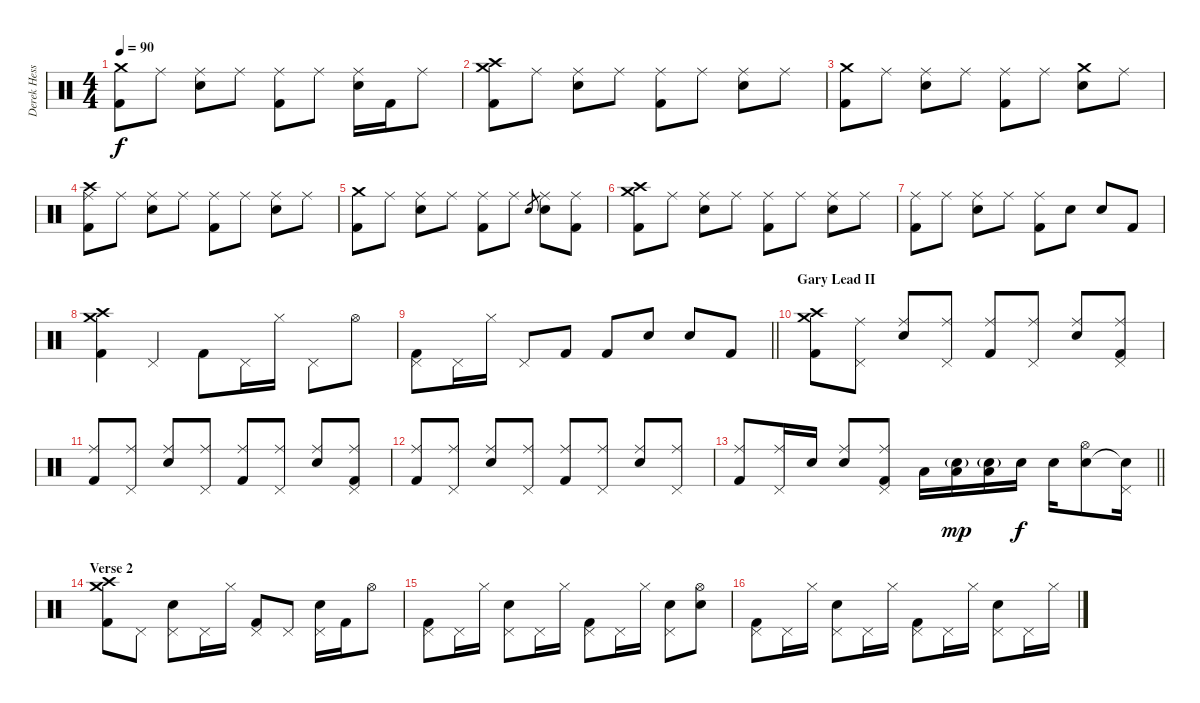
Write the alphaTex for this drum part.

\track ("Derek Hess (Drums and Percussion)" "Derek Hess") {instrument percussion}
\staff {score}
\articulation defaults
\ts (4 4)
\tempo 90
\clef neutral
\ks c
("Crash medium (hit)" "Kick (hit) 2").8{dy f} "Ride (middle)".8 ("Ride (middle)" "Snare (hit) 2").8 "Ride (middle)".8 ("Ride (middle)" "Kick (hit) 2").8 "Ride (middle)".8 ("Ride (middle)" "Snare (hit) 2").16 "Kick (hit) 2".16 "Ride (middle)".8 |
("Crash medium (hit)" "Crash high (hit)" "Kick (hit) 2").8 "Ride (middle)".8 ("Ride (middle)" "Snare (hit) 2").8 "Ride (middle)".8 ("Ride (middle)" "Kick (hit) 2").8 "Ride (middle)".8 ("Ride (middle)" "Snare (hit) 2").8 "Ride (middle)".8 |
("Crash medium (hit)" "Kick (hit) 2").8 "Ride (middle)".8 ("Ride (middle)" "Snare (hit) 2").8 "Ride (middle)".8 ("Ride (middle)" "Kick (hit) 2").8 "Ride (middle)".8 ("Crash medium (hit)" "Snare (hit) 2").8 "Ride (middle)".8 |
("Crash high (hit)" "Ride (middle)" "Kick (hit) 2").8 "Ride (middle)".8 ("Ride (middle)" "Snare (hit) 2").8 "Ride (middle)".8 ("Ride (middle)" "Kick (hit) 2").8 "Ride (middle)".8 ("Ride (middle)" "Snare (hit) 2").8 "Ride (middle)".8 |
("Crash medium (hit)" "Kick (hit) 2").8 "Ride (middle)".8 ("Ride (middle)" "Snare (hit) 2").8 "Ride (middle)".8 ("Ride (middle)" "Kick (hit) 2").8 "Ride (middle)".8 "Snare (hit) 2".8{gr} ("Ride (middle)" "Snare (hit) 2").8 ("Ride (middle)" "Kick (hit) 2").8 |
("Crash medium (hit)" "Crash high (hit)" "Kick (hit) 2").8 "Ride (middle)".8 ("Ride (middle)" "Snare (hit) 2").8 "Ride (middle)".8 ("Ride (middle)" "Kick (hit) 2").8 "Ride (middle)".8 ("Ride (middle)" "Snare (hit) 2").8 "Ride (middle)".8 |
("Ride (middle)" "Kick (hit) 2").8 "Ride (middle)".8 ("Ride (middle)" "Snare (hit) 2").8 "Ride (middle)".8 ("Ride (middle)" "Kick (hit) 2").8 "Snare (hit) 2".8 "Snare (hit) 2".8 "Kick (hit) 2".8 |
("Crash medium (hit)" "Crash high (hit)" "Kick (hit) 2").4 "Pedal Hi-Hat (hit)".4 "Kick (hit) 2".8 "Pedal Hi-Hat (hit)".16 "Hi-Hat (closed)".16 "Pedal Hi-Hat (hit)".8 "Hi-Hat (open)".8 |
\barLineRight lightlight
("Pedal Hi-Hat (hit)" "Kick (hit) 2").8 "Pedal Hi-Hat (hit)".16 "Hi-Hat (closed)".16 "Pedal Hi-Hat (hit)".8 "Kick (hit) 2".8 "Kick (hit) 2".8 "Snare (hit) 2".8 "Snare (hit) 2".8 "Kick (hit) 2".8 |
\section ("" "Gary Lead II")
("Crash medium (hit)" "Crash high (hit)" "Kick (hit) 2").8 ("Ride (middle)" "Pedal Hi-Hat (hit)").8 ("Ride (middle)" "Snare (hit) 2").8 ("Ride (middle)" "Pedal Hi-Hat (hit)").8 ("Ride (middle)" "Kick (hit) 2").8 ("Ride (middle)" "Pedal Hi-Hat (hit)").8 ("Ride (middle)" "Snare (hit) 2").8 ("Ride (middle)" "Pedal Hi-Hat (hit)" "Kick (hit) 2").8 |
("Ride (middle)" "Kick (hit) 2").8 ("Ride (middle)" "Pedal Hi-Hat (hit)").8 ("Ride (middle)" "Snare (hit) 2").8 ("Ride (middle)" "Pedal Hi-Hat (hit)").8 ("Ride (middle)" "Kick (hit) 2").8 ("Ride (middle)" "Pedal Hi-Hat (hit)").8 ("Ride (middle)" "Snare (hit) 2").8 ("Ride (middle)" "Pedal Hi-Hat (hit)" "Kick (hit) 2").8 |
("Ride (middle)" "Kick (hit) 2").8 ("Ride (middle)" "Pedal Hi-Hat (hit)").8 ("Ride (middle)" "Snare (hit) 2").8 ("Ride (middle)" "Pedal Hi-Hat (hit)").8 ("Ride (middle)" "Kick (hit) 2").8 ("Ride (middle)" "Pedal Hi-Hat (hit)").8 ("Ride (middle)" "Snare (hit) 2").8 ("Ride (middle)" "Pedal Hi-Hat (hit)").8 |
\barLineRight lightlight
("Ride (middle)" "Kick (hit) 2").8 ("Ride (middle)" "Pedal Hi-Hat (hit)").16 "Snare (hit) 2".16 ("Ride (middle)" "Snare (hit) 2").8 ("Ride (middle)" "Pedal Hi-Hat (hit)" "Kick (hit) 2").8 "Low Tom (hit)".16 ("Snare (hit) 2"{g} "Low Tom (hit)").16{dy mp} ("Snare (hit) 2"{g} "Low Tom (hit)").16 "Snare (hit) 2".16{dy f} "Snare (hit) 2".16 ("Snare (hit) 2" "Hi-Hat (open)").8 ("Snare (hit)"{t} "Pedal Hi-Hat (hit)").16 |
\section ("" "Verse 2")
("Crash medium (hit)" "Crash high (hit)" "Kick (hit) 2").8 "Pedal Hi-Hat (hit)".8 ("Snare (hit) 2" "Pedal Hi-Hat (hit)").8 "Pedal Hi-Hat (hit)".16 "Hi-Hat (closed)".16 ("Pedal Hi-Hat (hit)" "Kick (hit) 2").8 "Pedal Hi-Hat (hit)".8 ("Snare (hit) 2" "Pedal Hi-Hat (hit)").16 "Kick (hit) 2".16 "Hi-Hat (open)".8 |
("Pedal Hi-Hat (hit)" "Kick (hit) 2").8 "Pedal Hi-Hat (hit)".16 "Hi-Hat (closed)".16 ("Snare (hit) 2" "Pedal Hi-Hat (hit)").8 "Pedal Hi-Hat (hit)".16 "Hi-Hat (closed)".16 ("Pedal Hi-Hat (hit)" "Kick (hit) 2").8 "Pedal Hi-Hat (hit)".16 "Hi-Hat (closed)".16 ("Snare (hit) 2" "Pedal Hi-Hat (hit)").8 ("Snare (hit) 2" "Hi-Hat (open)").8 |
("Pedal Hi-Hat (hit)" "Kick (hit) 2").8 "Pedal Hi-Hat (hit)".16 "Hi-Hat (closed)".16 ("Snare (hit) 2" "Pedal Hi-Hat (hit)").8 "Pedal Hi-Hat (hit)".16 "Hi-Hat (closed)".16 ("Pedal Hi-Hat (hit)" "Kick (hit) 2").8 "Pedal Hi-Hat (hit)".16 "Hi-Hat (closed)".16 ("Snare (hit) 2" "Pedal Hi-Hat (hit)").8 "Pedal Hi-Hat (hit)".16 "Hi-Hat (closed)".16
